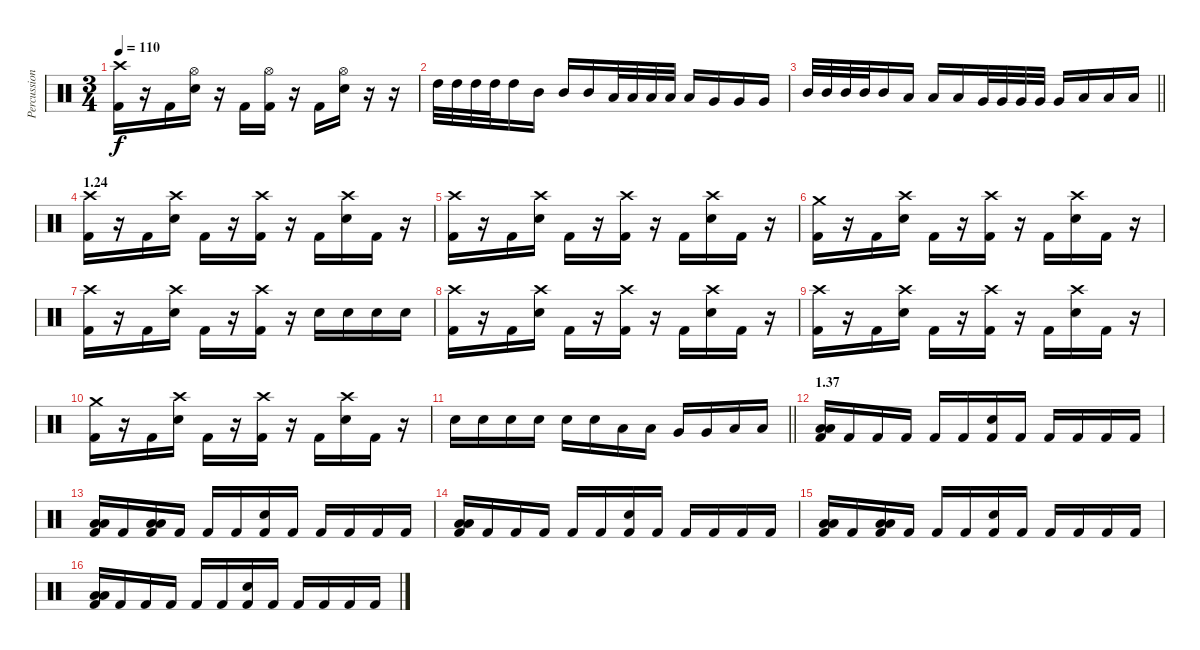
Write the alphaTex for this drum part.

\track ("Percussion" "Percussion") {instrument percussion}
\staff {score}
\articulation defaults
\ts (3 4)
\tempo 110
\clef neutral
\ks c
("Crash high (hit)" "Kick (hit) 2").16{dy f} r.16 "Kick (hit) 2".16 ("Hi-Hat (open)" "Snare (hit) 2").16 r.16 "Kick (hit) 2".16 ("Hi-Hat (open)" "Kick (hit) 2").16 r.16 "Kick (hit) 2".16 ("Hi-Hat (open)" "Snare (hit) 2").16 r.16 r.16 |
"High Tom (hit)".32 "High Tom (hit)".32 "High Tom (hit)".32 "High Tom (hit)".32 "High Tom (hit)".16 "Mid Tom (hit)".16 "Mid Tom (hit)".16 "Mid Tom (hit)".16 "Low Tom (hit)".32 "Low Tom (hit)".32 "Low Tom (hit)".32 "Low Tom (hit)".32 "Low Tom (hit)".16 "Very Low Tom (hit)".16 "Very Low Tom (hit)".16 "Very Low Tom (hit)".16 |
\barLineRight lightlight "Mid Tom (hit)".32 "Mid Tom (hit)".32 "Mid Tom (hit)".32 "Mid Tom (hit)".32 "Mid Tom (hit)".16 "Low Tom (hit)".16 "Low Tom (hit)".16 "Low Tom (hit)".16 "Very Low Tom (hit)".32 "Very Low Tom (hit)".32 "Very Low Tom (hit)".32 "Very Low Tom (hit)".32 "Very Low Tom (hit)".16 "Low Floor Tom (hit)".16 "Low Floor Tom (hit)".16 "Low Floor Tom (hit)".16
|
\section ("" "1.24")
("Crash high (hit)" "Kick (hit) 2").16 r.16 "Kick (hit) 2".16 ("Crash high (hit)" "Snare (hit) 2").16 "Kick (hit) 2".16 r.16 ("Crash high (hit)" "Kick (hit) 2").16 r.16 "Kick (hit) 2".16 ("Crash high (hit)" "Snare (hit) 2").16 "Kick (hit) 2".16 r.16 |
("Crash high (hit)" "Kick (hit) 2").16 r.16 "Kick (hit) 2".16 ("Crash high (hit)" "Snare (hit) 2").16 "Kick (hit) 2".16 r.16 ("Crash high (hit)" "Kick (hit) 2").16 r.16 "Kick (hit) 2".16 ("Crash high (hit)" "Snare (hit) 2").16 "Kick (hit) 2".16 r.16 |
("Crash medium (hit)" "Kick (hit) 2").16 r.16 "Kick (hit) 2".16 ("Crash high (hit)" "Snare (hit) 2").16 "Kick (hit) 2".16 r.16 ("Crash high (hit)" "Kick (hit) 2").16 r.16 "Kick (hit) 2".16 ("Crash high (hit)" "Snare (hit) 2").16 "Kick (hit) 2".16 r.16 |
("Crash high (hit)" "Kick (hit) 2").16 r.16 "Kick (hit) 2".16 ("Crash high (hit)" "Snare (hit) 2").16 "Kick (hit) 2".16 r.16 ("Crash high (hit)" "Kick (hit) 2").16 r.16 "Snare (hit) 2".16 "Snare (hit) 2".16 "Snare (hit) 2".16 "Snare (hit) 2".16 |
("Crash high (hit)" "Kick (hit) 2").16 r.16 "Kick (hit) 2".16 ("Crash high (hit)" "Snare (hit) 2").16 "Kick (hit) 2".16 r.16 ("Crash high (hit)" "Kick (hit) 2").16 r.16 "Kick (hit) 2".16 ("Crash high (hit)" "Snare (hit) 2").16 "Kick (hit) 2".16 r.16 |
("Crash high (hit)" "Kick (hit) 2").16 r.16 "Kick (hit) 2".16 ("Crash high (hit)" "Snare (hit) 2").16 "Kick (hit) 2".16 r.16 ("Crash high (hit)" "Kick (hit) 2").16 r.16 "Kick (hit) 2".16 ("Crash high (hit)" "Snare (hit) 2").16 "Kick (hit) 2".16 r.16 |
("Crash medium (hit)" "Kick (hit) 2").16 r.16 "Kick (hit) 2".16 ("Crash high (hit)" "Snare (hit) 2").16 "Kick (hit) 2".16 r.16 ("Crash high (hit)" "Kick (hit) 2").16 r.16 "Kick (hit) 2".16 ("Crash high (hit)" "Snare (hit) 2").16 "Kick (hit) 2".16 r.16 |
\barLineRight lightlight "Snare (hit) 2".16 "Snare (hit) 2".16 "Snare (hit) 2".16 "Snare (hit) 2".16 "Snare (hit) 2".16 "Snare (hit) 2".16 "Low Tom (hit)".16 "Low Tom (hit)".16 "Very Low Tom (hit)".16 "Very Low Tom (hit)".16 "Low Floor Tom (hit)".16 "Low Floor Tom (hit)".16
|
\section ("" "1.37")
("Low Tom (hit)" "Low Floor Tom (hit)" "Kick (hit) 2").16 "Kick (hit) 2".16 "Kick (hit) 2".16 "Kick (hit) 2".16 "Kick (hit) 2".16 "Kick (hit) 2".16 ("Snare (hit) 2" "Kick (hit) 2").16 "Kick (hit) 2".16 "Kick (hit) 2".16 "Kick (hit) 2".16 "Kick (hit) 2".16 "Kick (hit) 2".16 |
("Low Tom (hit)" "Low Floor Tom (hit)" "Kick (hit) 2").16 "Kick (hit) 2".16 ("Low Tom (hit)" "Low Floor Tom (hit)" "Kick (hit) 2").16 "Kick (hit) 2".16 "Kick (hit) 2".16 "Kick (hit) 2".16 ("Snare (hit) 2" "Kick (hit) 2").16 "Kick (hit) 2".16 "Kick (hit) 2".16 "Kick (hit) 2".16 "Kick (hit) 2".16 "Kick (hit) 2".16 |
("Low Tom (hit)" "Low Floor Tom (hit)" "Kick (hit) 2").16 "Kick (hit) 2".16 "Kick (hit) 2".16 "Kick (hit) 2".16 "Kick (hit) 2".16 "Kick (hit) 2".16 ("Snare (hit) 2" "Kick (hit) 2").16 "Kick (hit) 2".16 "Kick (hit) 2".16 "Kick (hit) 2".16 "Kick (hit) 2".16 "Kick (hit) 2".16 |
("Low Tom (hit)" "Low Floor Tom (hit)" "Kick (hit) 2").16 "Kick (hit) 2".16 ("Low Tom (hit)" "Low Floor Tom (hit)" "Kick (hit) 2").16 "Kick (hit) 2".16 "Kick (hit) 2".16 "Kick (hit) 2".16 ("Snare (hit) 2" "Kick (hit) 2").16 "Kick (hit) 2".16 "Kick (hit) 2".16 "Kick (hit) 2".16 "Kick (hit) 2".16 "Kick (hit) 2".16 |
("Low Tom (hit)" "Low Floor Tom (hit)" "Kick (hit) 2").16 "Kick (hit) 2".16 "Kick (hit) 2".16 "Kick (hit) 2".16 "Kick (hit) 2".16 "Kick (hit) 2".16 ("Snare (hit) 2" "Kick (hit) 2").16 "Kick (hit) 2".16 "Kick (hit) 2".16 "Kick (hit) 2".16 "Kick (hit) 2".16 "Kick (hit) 2".16
